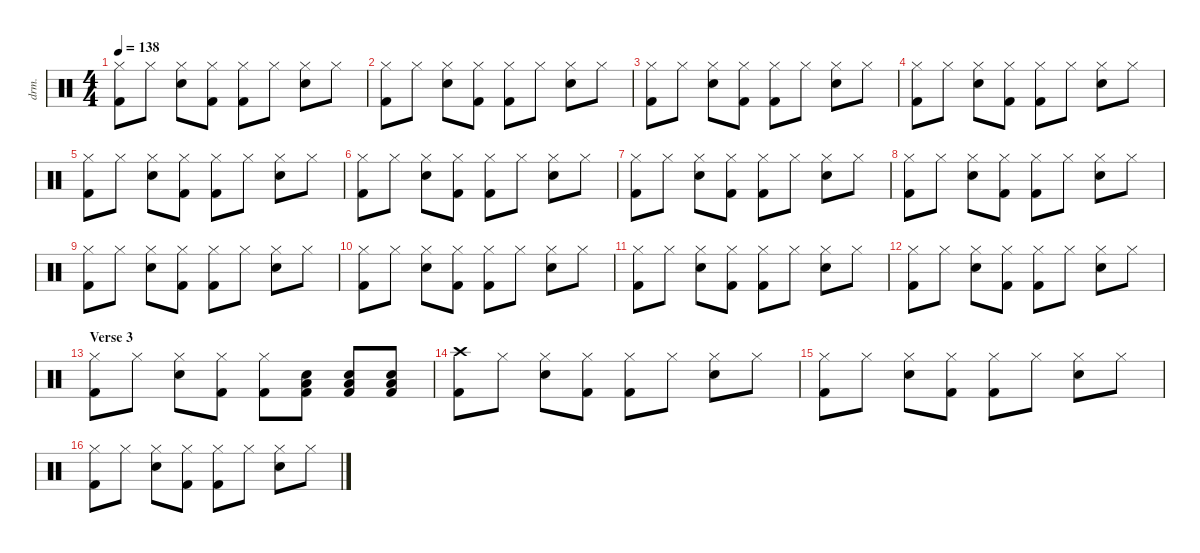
\defaultSystemsLayout 4
\hideDynamics
\bracketExtendMode nobrackets
\otherSystemsTrackNameOrientation horizontal
\track ("Drums (Don Henley)" "drm.") {instrument percussion}
\staff {score}
\articulation defaults
\ts (4 4)
\tempo 138
\clef neutral
\ks c
("Hi-Hat (closed)" "Kick (hit) 2").8{dy f} "Hi-Hat (closed)".8 ("Hi-Hat (closed)" "Snare (hit) 2").8 ("Hi-Hat (closed)" "Kick (hit) 2").8 ("Hi-Hat (closed)" "Kick (hit) 2").8 "Hi-Hat (closed)".8 ("Hi-Hat (closed)" "Snare (hit) 2").8 "Hi-Hat (closed)".8 |
("Hi-Hat (closed)" "Kick (hit) 2").8 "Hi-Hat (closed)".8 ("Hi-Hat (closed)" "Snare (hit) 2").8 ("Hi-Hat (closed)" "Kick (hit) 2").8 ("Hi-Hat (closed)" "Kick (hit) 2").8 "Hi-Hat (closed)".8 ("Hi-Hat (closed)" "Snare (hit) 2").8 "Hi-Hat (closed)".8 |
("Hi-Hat (closed)" "Kick (hit) 2").8 "Hi-Hat (closed)".8 ("Hi-Hat (closed)" "Snare (hit) 2").8 ("Hi-Hat (closed)" "Kick (hit) 2").8 ("Hi-Hat (closed)" "Kick (hit) 2").8 "Hi-Hat (closed)".8 ("Hi-Hat (closed)" "Snare (hit) 2").8 "Hi-Hat (closed)".8 |
("Hi-Hat (closed)" "Kick (hit) 2").8 "Hi-Hat (closed)".8 ("Hi-Hat (closed)" "Snare (hit) 2").8 ("Hi-Hat (closed)" "Kick (hit) 2").8 ("Hi-Hat (closed)" "Kick (hit) 2").8 "Hi-Hat (closed)".8 ("Hi-Hat (closed)" "Snare (hit) 2").8 "Hi-Hat (closed)".8 |
("Hi-Hat (closed)" "Kick (hit) 2").8 "Hi-Hat (closed)".8 ("Hi-Hat (closed)" "Snare (hit) 2").8 ("Hi-Hat (closed)" "Kick (hit) 2").8 ("Hi-Hat (closed)" "Kick (hit) 2").8 "Hi-Hat (closed)".8 ("Hi-Hat (closed)" "Snare (hit) 2").8 "Hi-Hat (closed)".8 |
("Hi-Hat (closed)" "Kick (hit) 2").8 "Hi-Hat (closed)".8 ("Hi-Hat (closed)" "Snare (hit) 2").8 ("Hi-Hat (closed)" "Kick (hit) 2").8 ("Hi-Hat (closed)" "Kick (hit) 2").8 "Hi-Hat (closed)".8 ("Hi-Hat (closed)" "Snare (hit) 2").8 "Hi-Hat (closed)".8 |
("Hi-Hat (closed)" "Kick (hit) 2").8 "Hi-Hat (closed)".8 ("Hi-Hat (closed)" "Snare (hit) 2").8 ("Hi-Hat (closed)" "Kick (hit) 2").8 ("Hi-Hat (closed)" "Kick (hit) 2").8 "Hi-Hat (closed)".8 ("Hi-Hat (closed)" "Snare (hit) 2").8 "Hi-Hat (closed)".8 |
("Hi-Hat (closed)" "Kick (hit) 2").8 "Hi-Hat (closed)".8 ("Hi-Hat (closed)" "Snare (hit) 2").8 ("Hi-Hat (closed)" "Kick (hit) 2").8 ("Hi-Hat (closed)" "Kick (hit) 2").8 "Hi-Hat (closed)".8 ("Hi-Hat (closed)" "Snare (hit) 2").8 "Hi-Hat (closed)".8 |
("Hi-Hat (closed)" "Kick (hit) 2").8 "Hi-Hat (closed)".8 ("Hi-Hat (closed)" "Snare (hit) 2").8 ("Hi-Hat (closed)" "Kick (hit) 2").8 ("Hi-Hat (closed)" "Kick (hit) 2").8 "Hi-Hat (closed)".8 ("Hi-Hat (closed)" "Snare (hit) 2").8 "Hi-Hat (closed)".8 |
("Hi-Hat (closed)" "Kick (hit) 2").8 "Hi-Hat (closed)".8 ("Hi-Hat (closed)" "Snare (hit) 2").8 ("Hi-Hat (closed)" "Kick (hit) 2").8 ("Hi-Hat (closed)" "Kick (hit) 2").8 "Hi-Hat (closed)".8 ("Hi-Hat (closed)" "Snare (hit) 2").8 "Hi-Hat (closed)".8 |
("Hi-Hat (closed)" "Kick (hit) 2").8 "Hi-Hat (closed)".8 ("Hi-Hat (closed)" "Snare (hit) 2").8 ("Hi-Hat (closed)" "Kick (hit) 2").8 ("Hi-Hat (closed)" "Kick (hit) 2").8 "Hi-Hat (closed)".8 ("Hi-Hat (closed)" "Snare (hit) 2").8 "Hi-Hat (closed)".8 |
("Hi-Hat (closed)" "Kick (hit) 2").8 "Hi-Hat (closed)".8 ("Hi-Hat (closed)" "Snare (hit) 2").8 ("Hi-Hat (closed)" "Kick (hit) 2").8 ("Hi-Hat (closed)" "Kick (hit) 2").8 "Hi-Hat (closed)".8 ("Hi-Hat (closed)" "Snare (hit) 2").8 "Hi-Hat (closed)".8 |
\section ("" "Verse 3")
("Hi-Hat (closed)" "Kick (hit) 2").8 "Hi-Hat (closed)".8 ("Hi-Hat (closed)" "Snare (hit) 2").8 ("Hi-Hat (closed)" "Kick (hit) 2").8 ("Hi-Hat (closed)" "Kick (hit) 2").8 ("Low Floor Tom (hit)" "Snare (hit) 2" "Kick (hit) 2").8 ("Low Floor Tom (hit)" "Snare (hit) 2" "Kick (hit) 2").8 ("Low Floor Tom (hit)" "Snare (hit) 2" "Kick (hit) 2").8 |
("Crash high (hit)" "Kick (hit) 2").8 "Hi-Hat (closed)".8 ("Hi-Hat (closed)" "Snare (hit) 2").8 ("Hi-Hat (closed)" "Kick (hit) 2").8 ("Hi-Hat (closed)" "Kick (hit) 2").8 "Hi-Hat (closed)".8 ("Hi-Hat (closed)" "Snare (hit) 2").8 "Hi-Hat (closed)".8 |
("Hi-Hat (closed)" "Kick (hit) 2").8 "Hi-Hat (closed)".8 ("Hi-Hat (closed)" "Snare (hit) 2").8 ("Hi-Hat (closed)" "Kick (hit) 2").8 ("Hi-Hat (closed)" "Kick (hit) 2").8 "Hi-Hat (closed)".8 ("Hi-Hat (closed)" "Snare (hit) 2").8 "Hi-Hat (closed)".8 |
("Hi-Hat (closed)" "Kick (hit) 2").8 "Hi-Hat (closed)".8 ("Hi-Hat (closed)" "Snare (hit) 2").8 ("Hi-Hat (closed)" "Kick (hit) 2").8 ("Hi-Hat (closed)" "Kick (hit) 2").8 "Hi-Hat (closed)".8 ("Hi-Hat (closed)" "Snare (hit) 2").8 "Hi-Hat (closed)".8
